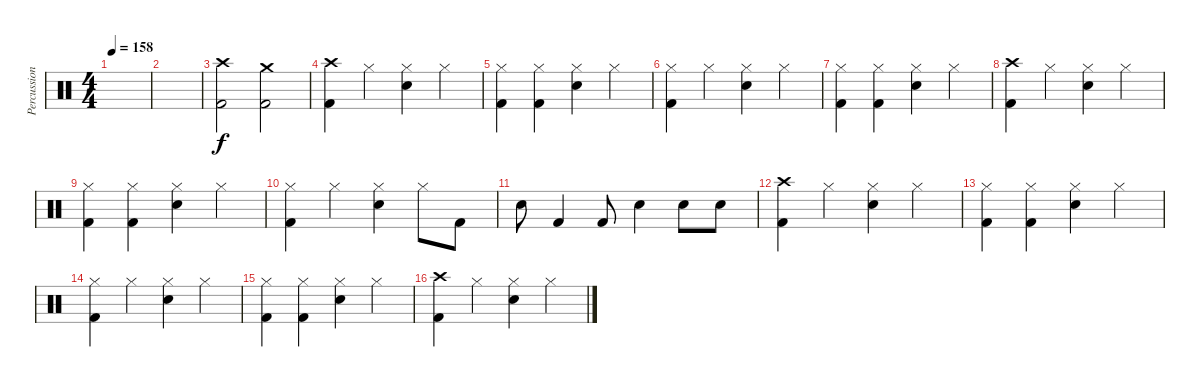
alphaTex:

\track ("Percussion" "Percussion") {instrument percussion}
\staff {score}
\articulation defaults
\ts (4 4)
\tempo 158
\clef neutral
\ks c
|
|
("Crash high (hit)" "Kick (hit) 2").2 ("Crash medium (hit)" "Kick (hit) 2").2 |
("Crash high (hit)" "Kick (hit) 2").4 "Hi-Hat (closed)".4 ("Hi-Hat (closed)" "Snare (hit) 2").4 "Hi-Hat (closed)".4 |
("Hi-Hat (closed)" "Kick (hit) 2").4 ("Hi-Hat (closed)" "Kick (hit) 2").4 ("Hi-Hat (closed)" "Snare (hit) 2").4 "Hi-Hat (closed)".4 |
("Hi-Hat (closed)" "Kick (hit) 2").4 "Hi-Hat (closed)".4 ("Hi-Hat (closed)" "Snare (hit) 2").4 "Hi-Hat (closed)".4 |
("Hi-Hat (closed)" "Kick (hit) 2").4 ("Hi-Hat (closed)" "Kick (hit) 2").4 ("Hi-Hat (closed)" "Snare (hit) 2").4 "Hi-Hat (closed)".4 |
("Crash high (hit)" "Kick (hit) 2").4 "Hi-Hat (closed)".4 ("Hi-Hat (closed)" "Snare (hit) 2").4 "Hi-Hat (closed)".4 |
("Hi-Hat (closed)" "Kick (hit) 2").4 ("Hi-Hat (closed)" "Kick (hit) 2").4 ("Hi-Hat (closed)" "Snare (hit) 2").4 "Hi-Hat (closed)".4 |
("Hi-Hat (closed)" "Kick (hit) 2").4 "Hi-Hat (closed)".4 ("Hi-Hat (closed)" "Snare (hit) 2").4 "Hi-Hat (closed)".8 "Kick (hit) 2".8 |
"Snare (hit) 2".8 "Kick (hit) 2".4 "Kick (hit) 2".8 "Snare (hit) 2".4 "Snare (hit) 2".8 "Snare (hit) 2".8 |
("Crash high (hit)" "Kick (hit) 2").4 "Hi-Hat (closed)".4 ("Hi-Hat (closed)" "Snare (hit) 2").4 "Hi-Hat (closed)".4 |
("Hi-Hat (closed)" "Kick (hit) 2").4 ("Hi-Hat (closed)" "Kick (hit) 2").4 ("Hi-Hat (closed)" "Snare (hit) 2").4 "Hi-Hat (closed)".4 |
("Hi-Hat (closed)" "Kick (hit) 2").4 "Hi-Hat (closed)".4 ("Hi-Hat (closed)" "Snare (hit) 2").4 "Hi-Hat (closed)".4 |
("Hi-Hat (closed)" "Kick (hit) 2").4 ("Hi-Hat (closed)" "Kick (hit) 2").4 ("Hi-Hat (closed)" "Snare (hit) 2").4 "Hi-Hat (closed)".4 |
("Crash high (hit)" "Kick (hit) 2").4 "Hi-Hat (closed)".4 ("Hi-Hat (closed)" "Snare (hit) 2").4 "Hi-Hat (closed)".4
